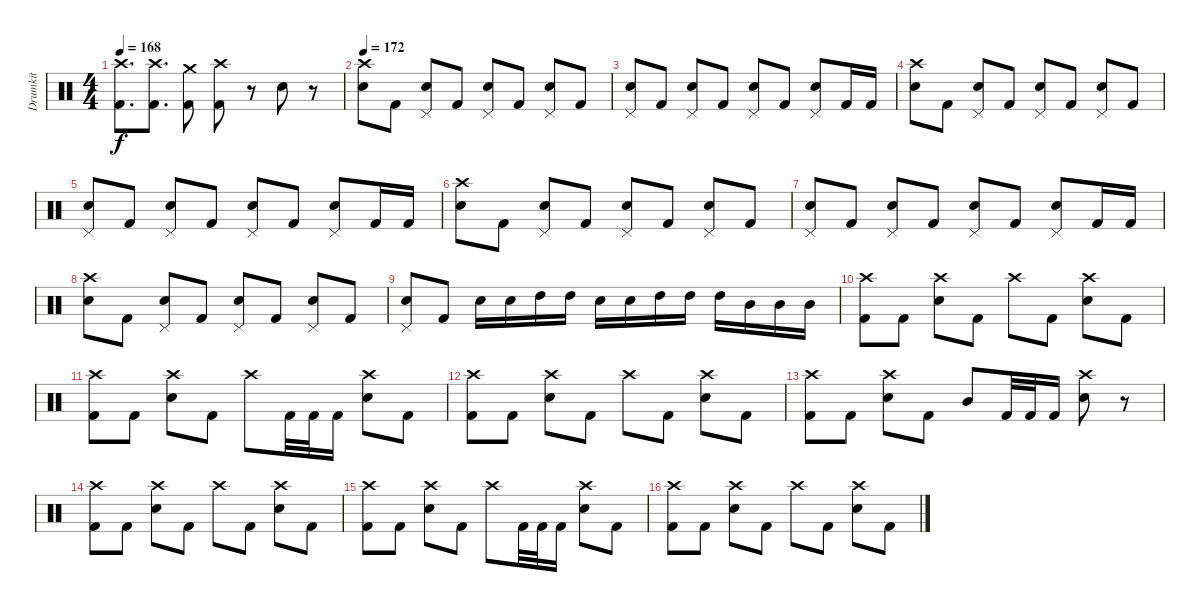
\track ("Drumkit" "Drumkit") {instrument percussion}
\staff {score}
\articulation defaults
\ts (4 4)
\tempo 168
\clef neutral
\ks c
("Crash high (hit)" "Kick (hit) 2").8{d dy f} ("Crash high (hit)" "Kick (hit) 2").8{d} ("Crash medium (hit)" "Kick (hit) 2").8 ("Crash high (hit)" "Kick (hit) 2").8 r.8 "Snare (hit) 2".8 r.8 |
\tempo 172
("Crash high (hit)" "Snare (hit) 2").8 "Kick (hit) 2".8 ("Pedal Hi-Hat (hit)" "Snare (hit) 2").8 "Kick (hit) 2".8 ("Pedal Hi-Hat (hit)" "Snare (hit) 2").8 "Kick (hit) 2".8 ("Pedal Hi-Hat (hit)" "Snare (hit) 2").8 "Kick (hit) 2".8 |
("Pedal Hi-Hat (hit)" "Snare (hit) 2").8 "Kick (hit) 2".8 ("Pedal Hi-Hat (hit)" "Snare (hit) 2").8 "Kick (hit) 2".8 ("Pedal Hi-Hat (hit)" "Snare (hit) 2").8 "Kick (hit) 2".8 ("Pedal Hi-Hat (hit)" "Snare (hit) 2").8 "Kick (hit) 2".16 "Kick (hit) 2".16 |
("Crash high (hit)" "Snare (hit) 2").8 "Kick (hit) 2".8 ("Pedal Hi-Hat (hit)" "Snare (hit) 2").8 "Kick (hit) 2".8 ("Pedal Hi-Hat (hit)" "Snare (hit) 2").8 "Kick (hit) 2".8 ("Pedal Hi-Hat (hit)" "Snare (hit) 2").8 "Kick (hit) 2".8 |
("Pedal Hi-Hat (hit)" "Snare (hit) 2").8 "Kick (hit) 2".8 ("Pedal Hi-Hat (hit)" "Snare (hit) 2").8 "Kick (hit) 2".8 ("Pedal Hi-Hat (hit)" "Snare (hit) 2").8 "Kick (hit) 2".8 ("Pedal Hi-Hat (hit)" "Snare (hit) 2").8 "Kick (hit) 2".16 "Kick (hit) 2".16 |
("Crash high (hit)" "Snare (hit) 2").8 "Kick (hit) 2".8 ("Pedal Hi-Hat (hit)" "Snare (hit) 2").8 "Kick (hit) 2".8 ("Pedal Hi-Hat (hit)" "Snare (hit) 2").8 "Kick (hit) 2".8 ("Pedal Hi-Hat (hit)" "Snare (hit) 2").8 "Kick (hit) 2".8 |
("Pedal Hi-Hat (hit)" "Snare (hit) 2").8 "Kick (hit) 2".8 ("Pedal Hi-Hat (hit)" "Snare (hit) 2").8 "Kick (hit) 2".8 ("Pedal Hi-Hat (hit)" "Snare (hit) 2").8 "Kick (hit) 2".8 ("Pedal Hi-Hat (hit)" "Snare (hit) 2").8 "Kick (hit) 2".16 "Kick (hit) 2".16 |
("Crash high (hit)" "Snare (hit) 2").8 "Kick (hit) 2".8 ("Pedal Hi-Hat (hit)" "Snare (hit) 2").8 "Kick (hit) 2".8 ("Pedal Hi-Hat (hit)" "Snare (hit) 2").8 "Kick (hit) 2".8 ("Pedal Hi-Hat (hit)" "Snare (hit) 2").8 "Kick (hit) 2".8 |
("Pedal Hi-Hat (hit)" "Snare (hit) 2").8 "Kick (hit) 2".8 "Snare (hit) 2".16 "Snare (hit) 2".16 "High Tom (hit)".16 "High Tom (hit)".16 "Snare (hit) 2".16 "Snare (hit) 2".16 "High Tom (hit)".16 "High Tom (hit)".16 "High Tom (hit)".16 "Mid Tom (hit)".16 "Mid Tom (hit)".16 "Mid Tom (hit)".16 |
("Crash high (hit)" "Kick (hit) 2").8 "Kick (hit) 2".8 ("Crash high (hit)" "Snare (hit) 2").8 "Kick (hit) 2".8 "Crash high (hit)".8 "Kick (hit) 2".8 ("Crash high (hit)" "Snare (hit) 2").8 "Kick (hit) 2".8 |
("Crash high (hit)" "Kick (hit) 2").8 "Kick (hit) 2".8 ("Crash high (hit)" "Snare (hit) 2").8 "Kick (hit) 2".8 "Crash high (hit)".8 "Kick (hit) 2".32 "Kick (hit) 2".32 "Kick (hit) 2".16 ("Crash high (hit)" "Snare (hit) 2").8 "Kick (hit) 2".8 |
("Crash high (hit)" "Kick (hit) 2").8 "Kick (hit) 2".8 ("Crash high (hit)" "Snare (hit) 2").8 "Kick (hit) 2".8 "Crash high (hit)".8 "Kick (hit) 2".8 ("Crash high (hit)" "Snare (hit) 2").8 "Kick (hit) 2".8 |
("Crash high (hit)" "Kick (hit) 2").8 "Kick (hit) 2".8 ("Crash high (hit)" "Snare (hit) 2").8 "Kick (hit) 2".8 "Mid Tom (hit)".8 "Kick (hit) 2".32 "Kick (hit) 2".32 "Kick (hit) 2".16 ("Crash high (hit)" "Snare (hit) 2").8 r.8 |
("Crash high (hit)" "Kick (hit) 2").8 "Kick (hit) 2".8 ("Crash high (hit)" "Snare (hit) 2").8 "Kick (hit) 2".8 "Crash high (hit)".8 "Kick (hit) 2".8 ("Crash high (hit)" "Snare (hit) 2").8 "Kick (hit) 2".8 |
("Crash high (hit)" "Kick (hit) 2").8 "Kick (hit) 2".8 ("Crash high (hit)" "Snare (hit) 2").8 "Kick (hit) 2".8 "Crash high (hit)".8 "Kick (hit) 2".32 "Kick (hit) 2".32 "Kick (hit) 2".16 ("Crash high (hit)" "Snare (hit) 2").8 "Kick (hit) 2".8 |
("Crash high (hit)" "Kick (hit) 2").8 "Kick (hit) 2".8 ("Crash high (hit)" "Snare (hit) 2").8 "Kick (hit) 2".8 "Crash high (hit)".8 "Kick (hit) 2".8 ("Crash high (hit)" "Snare (hit) 2").8 "Kick (hit) 2".8
